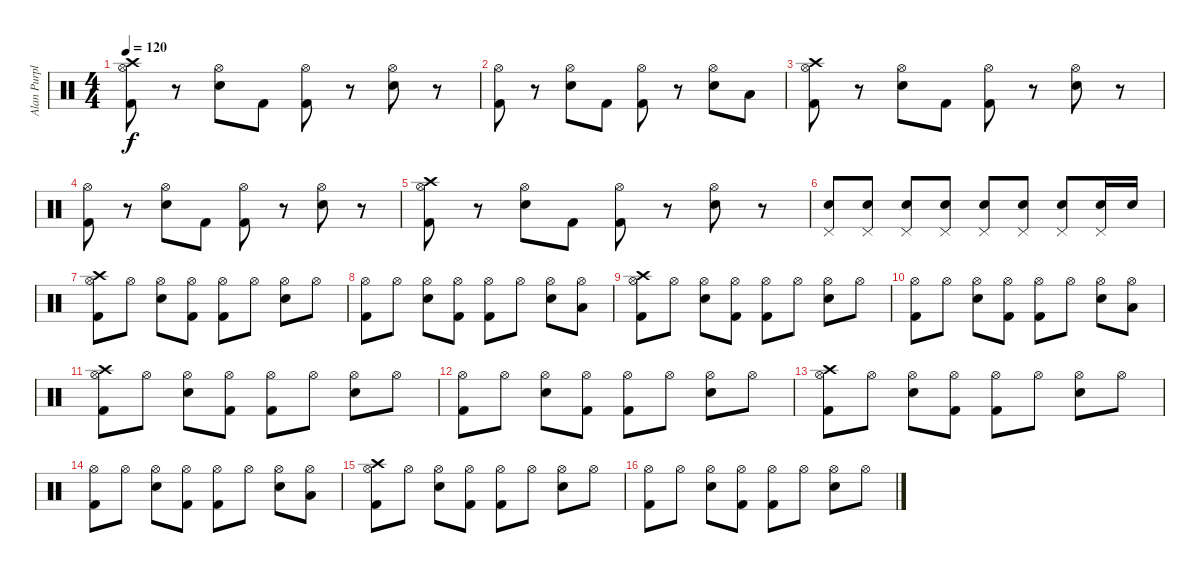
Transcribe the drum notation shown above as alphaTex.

\track ("Alan Purple" "Alan Purpl") {instrument percussion}
\staff {score}
\articulation defaults
\ts (4 4)
\tempo 120
\clef neutral
\ks c
("Crash high (hit)" "Hi-Hat (open)" "Kick (hit) 2").8{dy f} r.8 ("Hi-Hat (open)" "Snare (hit) 2").8 "Kick (hit) 2".8 ("Hi-Hat (open)" "Kick (hit) 2").8 r.8 ("Hi-Hat (open)" "Snare (hit) 2").8 r.8 |
("Hi-Hat (open)" "Kick (hit) 2").8 r.8 ("Hi-Hat (open)" "Snare (hit) 2").8 "Kick (hit) 2".8 ("Hi-Hat (open)" "Kick (hit) 2").8 r.8 ("Hi-Hat (open)" "Snare (hit) 2").8 "Low Tom (hit)".8 |
("Crash high (hit)" "Hi-Hat (open)" "Kick (hit) 2").8 r.8 ("Hi-Hat (open)" "Snare (hit) 2").8 "Kick (hit) 2".8 ("Hi-Hat (open)" "Kick (hit) 2").8 r.8 ("Hi-Hat (open)" "Snare (hit) 2").8 r.8 |
("Hi-Hat (open)" "Kick (hit) 2").8 r.8 ("Hi-Hat (open)" "Snare (hit) 2").8 "Kick (hit) 2".8 ("Hi-Hat (open)" "Kick (hit) 2").8 r.8 ("Hi-Hat (open)" "Snare (hit) 2").8 r.8 |
("Crash high (hit)" "Hi-Hat (open)" "Kick (hit) 2").8 r.8 ("Hi-Hat (open)" "Snare (hit) 2").8 "Kick (hit) 2".8 ("Hi-Hat (open)" "Kick (hit) 2").8 r.8 ("Hi-Hat (open)" "Snare (hit) 2").8 r.8 |
("Pedal Hi-Hat (hit)" "Snare (hit) 2").8 ("Pedal Hi-Hat (hit)" "Snare (hit) 2").8 ("Pedal Hi-Hat (hit)" "Snare (hit) 2").8 ("Pedal Hi-Hat (hit)" "Snare (hit) 2").8 ("Pedal Hi-Hat (hit)" "Snare (hit) 2").8 ("Pedal Hi-Hat (hit)" "Snare (hit) 2").8 ("Pedal Hi-Hat (hit)" "Snare (hit) 2").8 ("Pedal Hi-Hat (hit)" "Snare (hit) 2").16 "Snare (hit) 2".16 |
("Crash high (hit)" "Hi-Hat (open)" "Kick (hit) 2").8 "Hi-Hat (open)".8 ("Hi-Hat (open)" "Snare (hit) 2").8 ("Hi-Hat (open)" "Kick (hit) 2").8 ("Hi-Hat (open)" "Kick (hit) 2").8 "Hi-Hat (open)".8 ("Hi-Hat (open)" "Snare (hit) 2").8 "Hi-Hat (open)".8 |
("Hi-Hat (open)" "Kick (hit) 2").8 "Hi-Hat (open)".8 ("Hi-Hat (open)" "Snare (hit) 2").8 ("Hi-Hat (open)" "Kick (hit) 2").8 ("Hi-Hat (open)" "Kick (hit) 2").8 "Hi-Hat (open)".8 ("Hi-Hat (open)" "Snare (hit) 2").8 ("Hi-Hat (open)" "Low Tom (hit)").8 |
("Crash high (hit)" "Hi-Hat (open)" "Kick (hit) 2").8 "Hi-Hat (open)".8 ("Hi-Hat (open)" "Snare (hit) 2").8 ("Hi-Hat (open)" "Kick (hit) 2").8 ("Hi-Hat (open)" "Kick (hit) 2").8 "Hi-Hat (open)".8 ("Hi-Hat (open)" "Snare (hit) 2").8 "Hi-Hat (open)".8 |
("Hi-Hat (open)" "Kick (hit) 2").8 "Hi-Hat (open)".8 ("Hi-Hat (open)" "Snare (hit) 2").8 ("Hi-Hat (open)" "Kick (hit) 2").8 ("Hi-Hat (open)" "Kick (hit) 2").8 "Hi-Hat (open)".8 ("Hi-Hat (open)" "Snare (hit) 2").8 ("Hi-Hat (open)" "Low Tom (hit)").8 |
("Crash high (hit)" "Hi-Hat (open)" "Kick (hit) 2").8 "Hi-Hat (open)".8 ("Hi-Hat (open)" "Snare (hit) 2").8 ("Hi-Hat (open)" "Kick (hit) 2").8 ("Hi-Hat (open)" "Kick (hit) 2").8 "Hi-Hat (open)".8 ("Hi-Hat (open)" "Snare (hit) 2").8 "Hi-Hat (open)".8 |
("Hi-Hat (open)" "Kick (hit) 2").8 "Hi-Hat (open)".8 ("Hi-Hat (open)" "Snare (hit) 2").8 ("Hi-Hat (open)" "Kick (hit) 2").8 ("Hi-Hat (open)" "Kick (hit) 2").8 "Hi-Hat (open)".8 ("Hi-Hat (open)" "Snare (hit) 2").8 "Hi-Hat (open)".8 |
("Crash high (hit)" "Hi-Hat (open)" "Kick (hit) 2").8 "Hi-Hat (open)".8 ("Hi-Hat (open)" "Snare (hit) 2").8 ("Hi-Hat (open)" "Kick (hit) 2").8 ("Hi-Hat (open)" "Kick (hit) 2").8 "Hi-Hat (open)".8 ("Hi-Hat (open)" "Snare (hit) 2").8 "Hi-Hat (open)".8 |
("Hi-Hat (open)" "Kick (hit) 2").8 "Hi-Hat (open)".8 ("Hi-Hat (open)" "Snare (hit) 2").8 ("Hi-Hat (open)" "Kick (hit) 2").8 ("Hi-Hat (open)" "Kick (hit) 2").8 "Hi-Hat (open)".8 ("Hi-Hat (open)" "Snare (hit) 2").8 ("Hi-Hat (open)" "Low Tom (hit)").8 |
("Crash high (hit)" "Hi-Hat (open)" "Kick (hit) 2").8 "Hi-Hat (open)".8 ("Hi-Hat (open)" "Snare (hit) 2").8 ("Hi-Hat (open)" "Kick (hit) 2").8 ("Hi-Hat (open)" "Kick (hit) 2").8 "Hi-Hat (open)".8 ("Hi-Hat (open)" "Snare (hit) 2").8 "Hi-Hat (open)".8 |
("Hi-Hat (open)" "Kick (hit) 2").8 "Hi-Hat (open)".8 ("Hi-Hat (open)" "Snare (hit) 2").8 ("Hi-Hat (open)" "Kick (hit) 2").8 ("Hi-Hat (open)" "Kick (hit) 2").8 "Hi-Hat (open)".8 ("Hi-Hat (open)" "Snare (hit) 2").8 "Hi-Hat (open)".8
